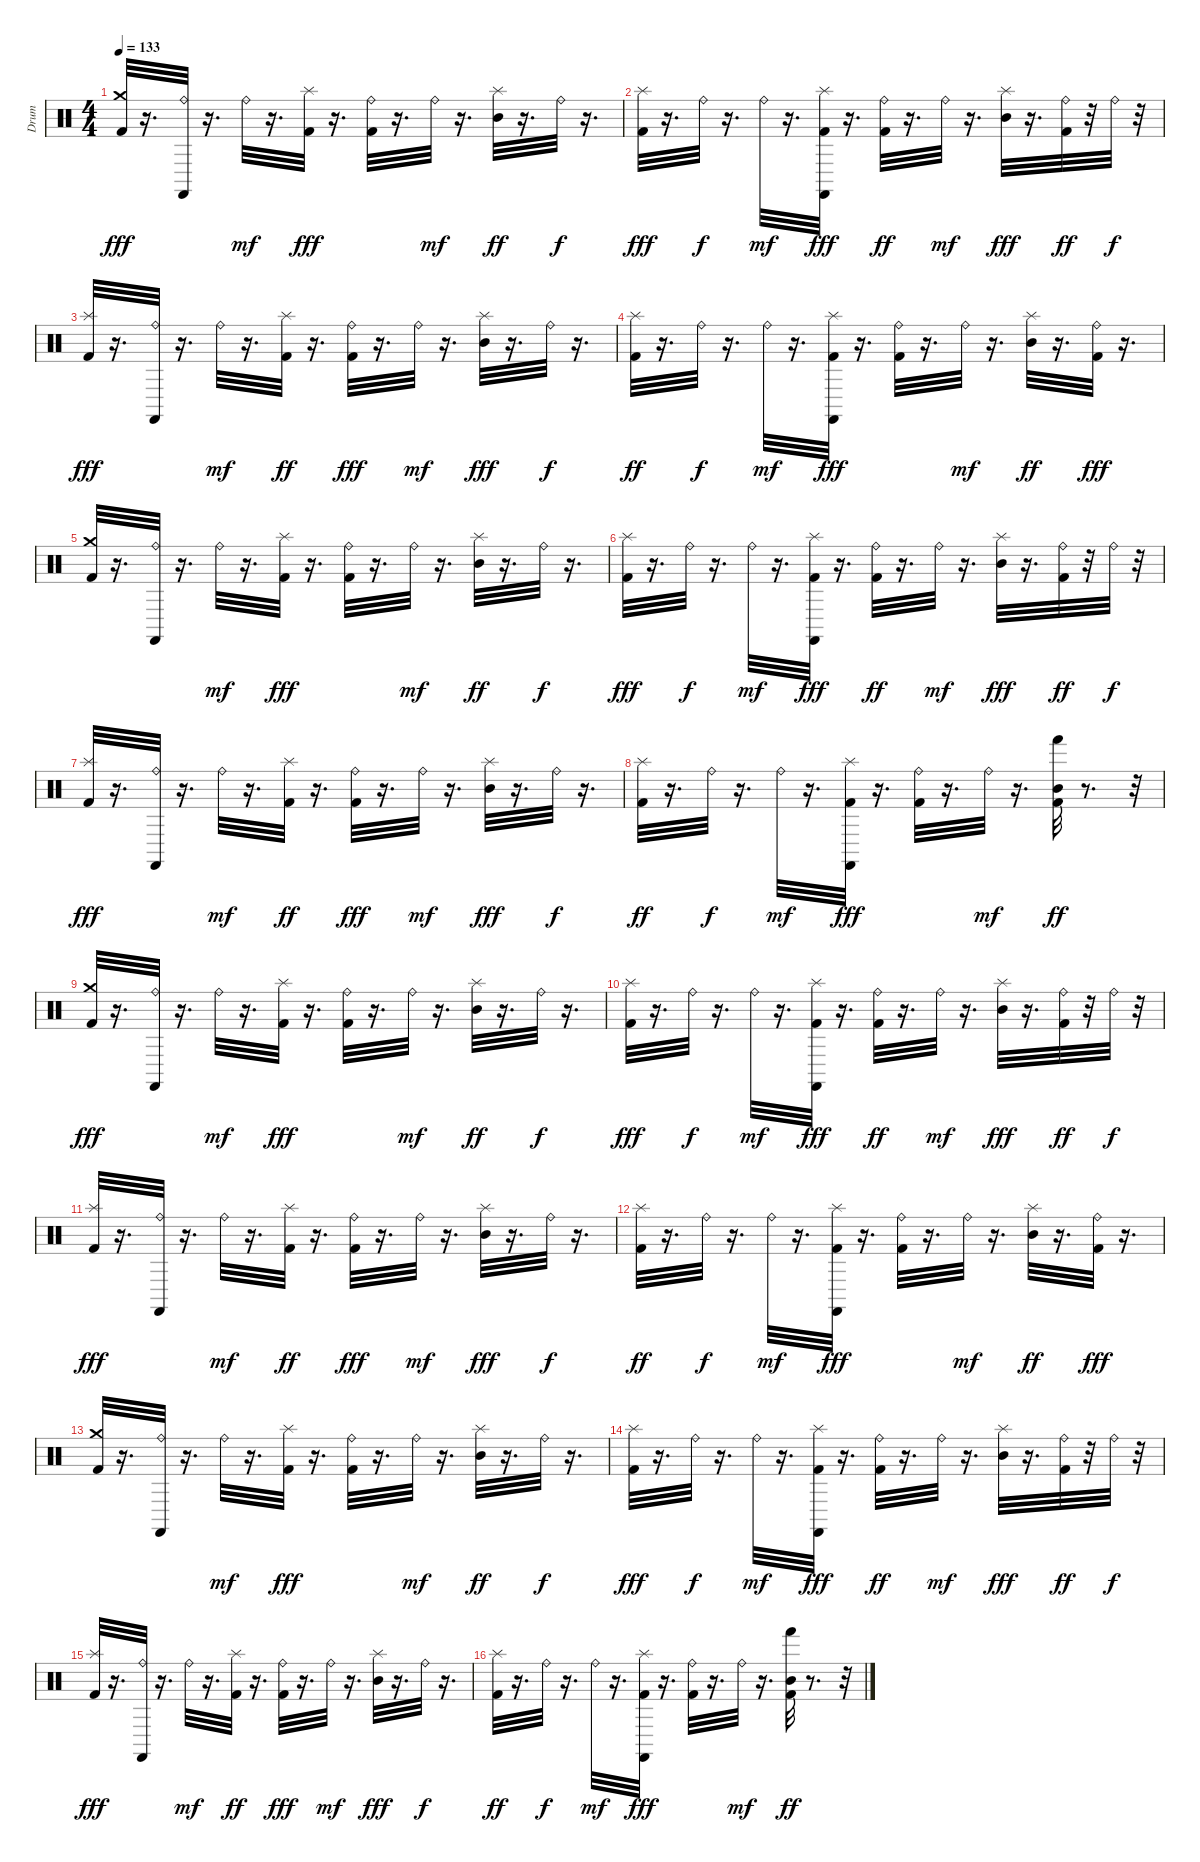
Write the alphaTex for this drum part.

\track ("Drum" "Drum") {instrument percussion}
\staff {score}
\articulation defaults
\ts (4 4)
\tempo 133
\clef neutral
\ks c
("Kick (hit) 2" "Crash medium (hit)").32{dy fff} r.16{d} ("Ride (bell)" "Castanets (hit)").32 r.16{d} "Ride (bell)".32{dy mf} r.16{d} ("Kick (hit) 2" "Splash (hit)").32{dy fff} r.16{d} ("Kick (hit) 2" "Ride (bell)").32 r.16{d} "Ride (bell)".32{dy mf} r.16{d} ("Mid Tom (hit)" "Splash (hit)").32{dy ff} r.16{d} "Ride (bell)".32{dy f} r.16{d} |
("Kick (hit) 2" "Splash (hit)").32{dy fff} r.16{d} "Ride (bell)".32{dy f} r.16{d} "Ride (bell)".32{dy mf} r.16{d} ("Kick (hit) 2" "Splash (hit)" "Castanets (hit)").32{dy fff} r.16{d} ("Kick (hit) 2" "Ride (bell)").32{dy ff} r.16{d} "Ride (bell)".32{dy mf} r.16{d} ("Mid Tom (hit)" "Splash (hit)").32{dy fff} r.16{d} ("Kick (hit) 2" "Ride (bell)").32{dy ff} r.32 "Ride (bell)".32{dy f} r.32 |
("Kick (hit) 2" "Splash (hit)").32{dy fff} r.16{d} ("Ride (bell)" "Castanets (hit)").32 r.16{d} "Ride (bell)".32{dy mf} r.16{d} ("Kick (hit) 2" "Splash (hit)").32{dy ff} r.16{d} ("Kick (hit) 2" "Ride (bell)").32{dy fff} r.16{d} "Ride (bell)".32{dy mf} r.16{d} ("Mid Tom (hit)" "Splash (hit)").32{dy fff} r.16{d} "Ride (bell)".32{dy f} r.16{d} |
("Kick (hit) 2" "Splash (hit)").32{dy ff} r.16{d} "Ride (bell)".32{dy f} r.16{d} "Ride (bell)".32{dy mf} r.16{d} ("Kick (hit) 2" "Splash (hit)" "Castanets (hit)").32{dy fff} r.16{d} ("Kick (hit) 2" "Ride (bell)").32 r.16{d} "Ride (bell)".32{dy mf} r.16{d} ("Mid Tom (hit)" "Splash (hit)").32{dy ff} r.16{d} ("Kick (hit) 2" "Ride (bell)").32{dy fff} r.16{d} |
("Kick (hit) 2" "Crash medium (hit)").32 r.16{d} ("Ride (bell)" "Castanets (hit)").32 r.16{d} "Ride (bell)".32{dy mf} r.16{d} ("Kick (hit) 2" "Splash (hit)").32{dy fff} r.16{d} ("Kick (hit) 2" "Ride (bell)").32 r.16{d} "Ride (bell)".32{dy mf} r.16{d} ("Mid Tom (hit)" "Splash (hit)").32{dy ff} r.16{d} "Ride (bell)".32{dy f} r.16{d} |
("Kick (hit) 2" "Splash (hit)").32{dy fff} r.16{d} "Ride (bell)".32{dy f} r.16{d} "Ride (bell)".32{dy mf} r.16{d} ("Kick (hit) 2" "Splash (hit)" "Castanets (hit)").32{dy fff} r.16{d} ("Kick (hit) 2" "Ride (bell)").32{dy ff} r.16{d} "Ride (bell)".32{dy mf} r.16{d} ("Mid Tom (hit)" "Splash (hit)").32{dy fff} r.16{d} ("Kick (hit) 2" "Ride (bell)").32{dy ff} r.32 "Ride (bell)".32{dy f} r.32 |
("Kick (hit) 2" "Splash (hit)").32{dy fff} r.16{d} ("Ride (bell)" "Castanets (hit)").32 r.16{d} "Ride (bell)".32{dy mf} r.16{d} ("Kick (hit) 2" "Splash (hit)").32{dy ff} r.16{d} ("Kick (hit) 2" "Ride (bell)").32{dy fff} r.16{d} "Ride (bell)".32{dy mf} r.16{d} ("Mid Tom (hit)" "Splash (hit)").32{dy fff} r.16{d} "Ride (bell)".32{dy f} r.16{d} |
("Kick (hit) 2" "Splash (hit)").32{dy ff} r.16{d} "Ride (bell)".32{dy f} r.16{d} "Ride (bell)".32{dy mf} r.16{d} ("Kick (hit) 2" "Splash (hit)" "Castanets (hit)").32{dy fff} r.16{d} ("Kick (hit) 2" "Ride (bell)").32 r.16{d} "Ride (bell)".32{dy mf} r.16{d} ("Kick (hit) 2" "Mid Tom (hit)" "Hand (hit)").32{dy ff} r.8{d} r.32 |
("Kick (hit) 2" "Crash medium (hit)").32{dy fff} r.16{d} ("Ride (bell)" "Castanets (hit)").32 r.16{d} "Ride (bell)".32{dy mf} r.16{d} ("Kick (hit) 2" "Splash (hit)").32{dy fff} r.16{d} ("Kick (hit) 2" "Ride (bell)").32 r.16{d} "Ride (bell)".32{dy mf} r.16{d} ("Mid Tom (hit)" "Splash (hit)").32{dy ff} r.16{d} "Ride (bell)".32{dy f} r.16{d} |
("Kick (hit) 2" "Splash (hit)").32{dy fff} r.16{d} "Ride (bell)".32{dy f} r.16{d} "Ride (bell)".32{dy mf} r.16{d} ("Kick (hit) 2" "Splash (hit)" "Castanets (hit)").32{dy fff} r.16{d} ("Kick (hit) 2" "Ride (bell)").32{dy ff} r.16{d} "Ride (bell)".32{dy mf} r.16{d} ("Mid Tom (hit)" "Splash (hit)").32{dy fff} r.16{d} ("Kick (hit) 2" "Ride (bell)").32{dy ff} r.32 "Ride (bell)".32{dy f} r.32 |
("Kick (hit) 2" "Splash (hit)").32{dy fff} r.16{d} ("Ride (bell)" "Castanets (hit)").32 r.16{d} "Ride (bell)".32{dy mf} r.16{d} ("Kick (hit) 2" "Splash (hit)").32{dy ff} r.16{d} ("Kick (hit) 2" "Ride (bell)").32{dy fff} r.16{d} "Ride (bell)".32{dy mf} r.16{d} ("Mid Tom (hit)" "Splash (hit)").32{dy fff} r.16{d} "Ride (bell)".32{dy f} r.16{d} |
("Kick (hit) 2" "Splash (hit)").32{dy ff} r.16{d} "Ride (bell)".32{dy f} r.16{d} "Ride (bell)".32{dy mf} r.16{d} ("Kick (hit) 2" "Splash (hit)" "Castanets (hit)").32{dy fff} r.16{d} ("Kick (hit) 2" "Ride (bell)").32 r.16{d} "Ride (bell)".32{dy mf} r.16{d} ("Mid Tom (hit)" "Splash (hit)").32{dy ff} r.16{d} ("Kick (hit) 2" "Ride (bell)").32{dy fff} r.16{d} |
("Kick (hit) 2" "Crash medium (hit)").32 r.16{d} ("Ride (bell)" "Castanets (hit)").32 r.16{d} "Ride (bell)".32{dy mf} r.16{d} ("Kick (hit) 2" "Splash (hit)").32{dy fff} r.16{d} ("Kick (hit) 2" "Ride (bell)").32 r.16{d} "Ride (bell)".32{dy mf} r.16{d} ("Mid Tom (hit)" "Splash (hit)").32{dy ff} r.16{d} "Ride (bell)".32{dy f} r.16{d} |
("Kick (hit) 2" "Splash (hit)").32{dy fff} r.16{d} "Ride (bell)".32{dy f} r.16{d} "Ride (bell)".32{dy mf} r.16{d} ("Kick (hit) 2" "Splash (hit)" "Castanets (hit)").32{dy fff} r.16{d} ("Kick (hit) 2" "Ride (bell)").32{dy ff} r.16{d} "Ride (bell)".32{dy mf} r.16{d} ("Mid Tom (hit)" "Splash (hit)").32{dy fff} r.16{d} ("Kick (hit) 2" "Ride (bell)").32{dy ff} r.32 "Ride (bell)".32{dy f} r.32 |
("Kick (hit) 2" "Splash (hit)").32{dy fff} r.16{d} ("Ride (bell)" "Castanets (hit)").32 r.16{d} "Ride (bell)".32{dy mf} r.16{d} ("Kick (hit) 2" "Splash (hit)").32{dy ff} r.16{d} ("Kick (hit) 2" "Ride (bell)").32{dy fff} r.16{d} "Ride (bell)".32{dy mf} r.16{d} ("Mid Tom (hit)" "Splash (hit)").32{dy fff} r.16{d} "Ride (bell)".32{dy f} r.16{d} |
("Kick (hit) 2" "Splash (hit)").32{dy ff} r.16{d} "Ride (bell)".32{dy f} r.16{d} "Ride (bell)".32{dy mf} r.16{d} ("Kick (hit) 2" "Splash (hit)" "Castanets (hit)").32{dy fff} r.16{d} ("Kick (hit) 2" "Ride (bell)").32 r.16{d} "Ride (bell)".32{dy mf} r.16{d} ("Kick (hit) 2" "Mid Tom (hit)" "Hand (hit)").32{dy ff} r.8{d} r.32
